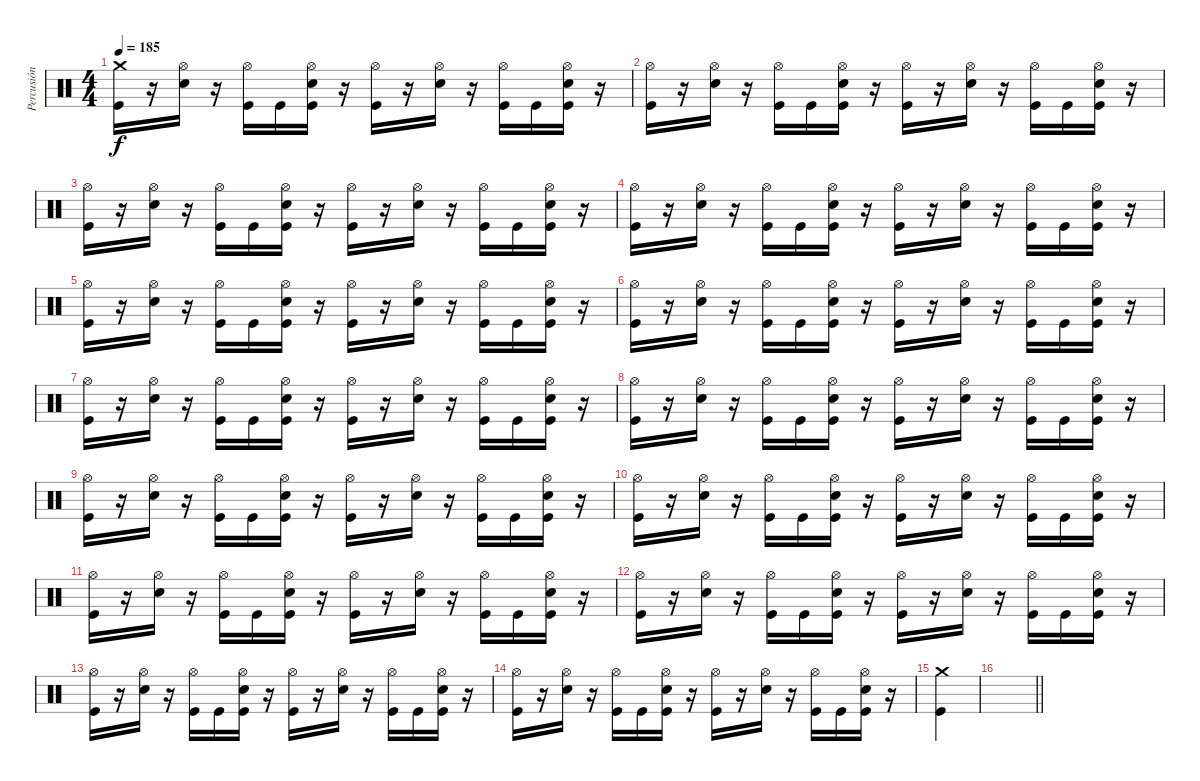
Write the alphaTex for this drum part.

\track ("Percusión" "Percusión") {instrument percussion}
\staff {score}
\articulation defaults
\ts (4 4)
\tempo 185
\clef neutral
\ks c
("Crash medium (hit)" "Kick (hit)").16{dy f} r.16 ("Hi-Hat (open)" "Electric Snare (hit)").16 r.16 ("Hi-Hat (open)" "Kick (hit)").16 "Kick (hit)".16 ("Hi-Hat (open)" "Electric Snare (hit)" "Kick (hit)").16 r.16 ("Hi-Hat (open)" "Kick (hit)").16 r.16 ("Hi-Hat (open)" "Electric Snare (hit)").16 r.16 ("Hi-Hat (open)" "Kick (hit)").16 "Kick (hit)".16 ("Hi-Hat (open)" "Electric Snare (hit)" "Kick (hit)").16 r.16 |
("Hi-Hat (open)" "Kick (hit)").16 r.16 ("Hi-Hat (open)" "Electric Snare (hit)").16 r.16 ("Hi-Hat (open)" "Kick (hit)").16 "Kick (hit)".16 ("Hi-Hat (open)" "Electric Snare (hit)" "Kick (hit)").16 r.16 ("Hi-Hat (open)" "Kick (hit)").16 r.16 ("Hi-Hat (open)" "Electric Snare (hit)").16 r.16 ("Hi-Hat (open)" "Kick (hit)").16 "Kick (hit)".16 ("Hi-Hat (open)" "Electric Snare (hit)" "Kick (hit)").16 r.16 |
("Hi-Hat (open)" "Kick (hit)").16 r.16 ("Hi-Hat (open)" "Electric Snare (hit)").16 r.16 ("Hi-Hat (open)" "Kick (hit)").16 "Kick (hit)".16 ("Hi-Hat (open)" "Electric Snare (hit)" "Kick (hit)").16 r.16 ("Hi-Hat (open)" "Kick (hit)").16 r.16 ("Hi-Hat (open)" "Electric Snare (hit)").16 r.16 ("Hi-Hat (open)" "Kick (hit)").16 "Kick (hit)".16 ("Hi-Hat (open)" "Electric Snare (hit)" "Kick (hit)").16 r.16 |
("Hi-Hat (open)" "Kick (hit)").16 r.16 ("Hi-Hat (open)" "Electric Snare (hit)").16 r.16 ("Hi-Hat (open)" "Kick (hit)").16 "Kick (hit)".16 ("Hi-Hat (open)" "Electric Snare (hit)" "Kick (hit)").16 r.16 ("Hi-Hat (open)" "Kick (hit)").16 r.16 ("Hi-Hat (open)" "Electric Snare (hit)").16 r.16 ("Hi-Hat (open)" "Kick (hit)").16 "Kick (hit)".16 ("Hi-Hat (open)" "Electric Snare (hit)" "Kick (hit)").16 r.16 |
("Hi-Hat (open)" "Kick (hit)").16 r.16 ("Hi-Hat (open)" "Electric Snare (hit)").16 r.16 ("Hi-Hat (open)" "Kick (hit)").16 "Kick (hit)".16 ("Hi-Hat (open)" "Electric Snare (hit)" "Kick (hit)").16 r.16 ("Hi-Hat (open)" "Kick (hit)").16 r.16 ("Hi-Hat (open)" "Electric Snare (hit)").16 r.16 ("Hi-Hat (open)" "Kick (hit)").16 "Kick (hit)".16 ("Hi-Hat (open)" "Electric Snare (hit)" "Kick (hit)").16 r.16 |
("Hi-Hat (open)" "Kick (hit)").16 r.16 ("Hi-Hat (open)" "Electric Snare (hit)").16 r.16 ("Hi-Hat (open)" "Kick (hit)").16 "Kick (hit)".16 ("Hi-Hat (open)" "Electric Snare (hit)" "Kick (hit)").16 r.16 ("Hi-Hat (open)" "Kick (hit)").16 r.16 ("Hi-Hat (open)" "Electric Snare (hit)").16 r.16 ("Hi-Hat (open)" "Kick (hit)").16 "Kick (hit)".16 ("Hi-Hat (open)" "Electric Snare (hit)" "Kick (hit)").16 r.16 |
("Hi-Hat (open)" "Kick (hit)").16 r.16 ("Hi-Hat (open)" "Electric Snare (hit)").16 r.16 ("Hi-Hat (open)" "Kick (hit)").16 "Kick (hit)".16 ("Hi-Hat (open)" "Electric Snare (hit)" "Kick (hit)").16 r.16 ("Hi-Hat (open)" "Kick (hit)").16 r.16 ("Hi-Hat (open)" "Electric Snare (hit)").16 r.16 ("Hi-Hat (open)" "Kick (hit)").16 "Kick (hit)".16 ("Hi-Hat (open)" "Electric Snare (hit)" "Kick (hit)").16 r.16 |
("Hi-Hat (open)" "Kick (hit)").16 r.16 ("Hi-Hat (open)" "Electric Snare (hit)").16 r.16 ("Hi-Hat (open)" "Kick (hit)").16 "Kick (hit)".16 ("Hi-Hat (open)" "Electric Snare (hit)" "Kick (hit)").16 r.16 ("Hi-Hat (open)" "Kick (hit)").16 r.16 ("Hi-Hat (open)" "Electric Snare (hit)").16 r.16 ("Hi-Hat (open)" "Kick (hit)").16 "Kick (hit)".16 ("Hi-Hat (open)" "Electric Snare (hit)" "Kick (hit)").16 r.16 |
("Hi-Hat (open)" "Kick (hit)").16 r.16 ("Hi-Hat (open)" "Electric Snare (hit)").16 r.16 ("Hi-Hat (open)" "Kick (hit)").16 "Kick (hit)".16 ("Hi-Hat (open)" "Electric Snare (hit)" "Kick (hit)").16 r.16 ("Hi-Hat (open)" "Kick (hit)").16 r.16 ("Hi-Hat (open)" "Electric Snare (hit)").16 r.16 ("Hi-Hat (open)" "Kick (hit)").16 "Kick (hit)".16 ("Hi-Hat (open)" "Electric Snare (hit)" "Kick (hit)").16 r.16 |
("Hi-Hat (open)" "Kick (hit)").16 r.16 ("Hi-Hat (open)" "Electric Snare (hit)").16 r.16 ("Hi-Hat (open)" "Kick (hit)").16 "Kick (hit)".16 ("Hi-Hat (open)" "Electric Snare (hit)" "Kick (hit)").16 r.16 ("Hi-Hat (open)" "Kick (hit)").16 r.16 ("Hi-Hat (open)" "Electric Snare (hit)").16 r.16 ("Hi-Hat (open)" "Kick (hit)").16 "Kick (hit)".16 ("Hi-Hat (open)" "Electric Snare (hit)" "Kick (hit)").16 r.16 |
("Hi-Hat (open)" "Kick (hit)").16 r.16 ("Hi-Hat (open)" "Electric Snare (hit)").16 r.16 ("Hi-Hat (open)" "Kick (hit)").16 "Kick (hit)".16 ("Hi-Hat (open)" "Electric Snare (hit)" "Kick (hit)").16 r.16 ("Hi-Hat (open)" "Kick (hit)").16 r.16 ("Hi-Hat (open)" "Electric Snare (hit)").16 r.16 ("Hi-Hat (open)" "Kick (hit)").16 "Kick (hit)".16 ("Hi-Hat (open)" "Electric Snare (hit)" "Kick (hit)").16 r.16 |
("Hi-Hat (open)" "Kick (hit)").16 r.16 ("Hi-Hat (open)" "Electric Snare (hit)").16 r.16 ("Hi-Hat (open)" "Kick (hit)").16 "Kick (hit)".16 ("Hi-Hat (open)" "Electric Snare (hit)" "Kick (hit)").16 r.16 ("Hi-Hat (open)" "Kick (hit)").16 r.16 ("Hi-Hat (open)" "Electric Snare (hit)").16 r.16 ("Hi-Hat (open)" "Kick (hit)").16 "Kick (hit)".16 ("Hi-Hat (open)" "Electric Snare (hit)" "Kick (hit)").16 r.16 |
("Hi-Hat (open)" "Kick (hit)").16 r.16 ("Hi-Hat (open)" "Electric Snare (hit)").16 r.16 ("Hi-Hat (open)" "Kick (hit)").16 "Kick (hit)".16 ("Hi-Hat (open)" "Electric Snare (hit)" "Kick (hit)").16 r.16 ("Hi-Hat (open)" "Kick (hit)").16 r.16 ("Hi-Hat (open)" "Electric Snare (hit)").16 r.16 ("Hi-Hat (open)" "Kick (hit)").16 "Kick (hit)".16 ("Hi-Hat (open)" "Electric Snare (hit)" "Kick (hit)").16 r.16 |
("Hi-Hat (open)" "Kick (hit)").16 r.16 ("Hi-Hat (open)" "Electric Snare (hit)").16 r.16 ("Hi-Hat (open)" "Kick (hit)").16 "Kick (hit)".16 ("Hi-Hat (open)" "Electric Snare (hit)" "Kick (hit)").16 r.16 ("Hi-Hat (open)" "Kick (hit)").16 r.16 ("Hi-Hat (open)" "Electric Snare (hit)").16 r.16 ("Hi-Hat (open)" "Kick (hit)").16 "Kick (hit)".16 ("Hi-Hat (open)" "Electric Snare (hit)" "Kick (hit)").16 r.16 |
("Crash medium (hit)" "Kick (hit)").4 |
\barLineRight lightlight
